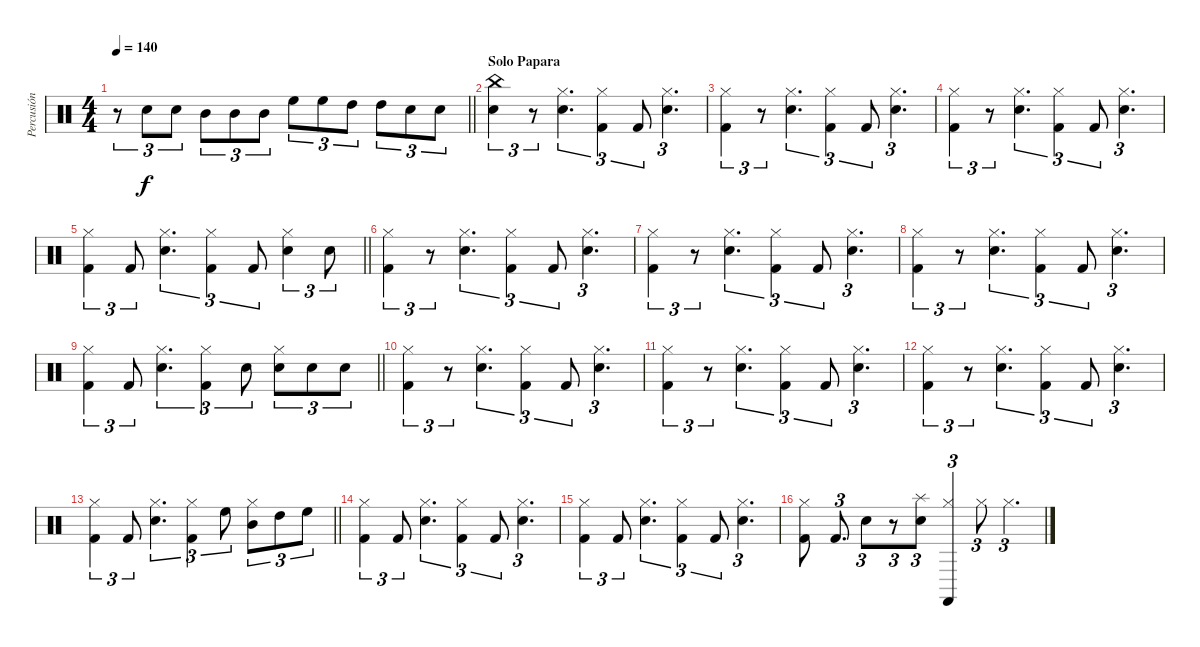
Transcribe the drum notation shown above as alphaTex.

\track ("Percusión" "Percusión") {instrument percussion}
\staff {score}
\articulation defaults
\ts (4 4)
\tempo 140
\clef neutral
\barLineRight lightlight
\ks c
r.8{tu (3 2) dy f} "Snare (hit) 2".8{tu (3 2)} "Snare (hit) 2".8{tu (3 2)} "Mid Tom (hit)".8{tu (3 2)} "Mid Tom (hit)".8{tu (3 2)} "Mid Tom (hit)".8{tu (3 2)} "High Floor Tom (hit)".8{tu (3 2)} "High Floor Tom (hit)".8{tu (3 2)} "High Tom (hit)".8{tu (3 2)} "High Tom (hit)".8{tu (3 2)} "Snare (hit) 2".8{tu (3 2)} "Snare (hit) 2".8{tu (3 2)} |
\section ("" "Solo Papara")
("China (hit)" "Snare (hit) 2").4{tu (3 2)} r.8{tu (3 2)} ("Hi-Hat (closed)" "Snare (hit) 2").4{d tu (3 2)} ("Hi-Hat (closed)" "Kick (hit) 2").4{tu (3 2)} "Kick (hit) 2".8{tu (3 2)} ("Hi-Hat (closed)" "Snare (hit) 2").4{d tu (3 2)} |
("Hi-Hat (closed)" "Kick (hit) 2").4{tu (3 2)} r.8{tu (3 2)} ("Hi-Hat (closed)" "Snare (hit) 2").4{d tu (3 2)} ("Hi-Hat (closed)" "Kick (hit) 2").4{tu (3 2)} "Kick (hit) 2".8{tu (3 2)} ("Hi-Hat (closed)" "Snare (hit) 2").4{d tu (3 2)} |
("Hi-Hat (closed)" "Kick (hit) 2").4{tu (3 2)} r.8{tu (3 2)} ("Hi-Hat (closed)" "Snare (hit) 2").4{d tu (3 2)} ("Hi-Hat (closed)" "Kick (hit) 2").4{tu (3 2)} "Kick (hit) 2".8{tu (3 2)} ("Hi-Hat (closed)" "Snare (hit) 2").4{d tu (3 2)} |
\barLineRight lightlight
("Hi-Hat (closed)" "Kick (hit) 2").4{tu (3 2)} "Kick (hit) 2".8{tu (3 2)} ("Hi-Hat (closed)" "Snare (hit) 2").4{d tu (3 2)} ("Hi-Hat (closed)" "Kick (hit) 2").4{tu (3 2)} "Kick (hit) 2".8{tu (3 2)} ("Hi-Hat (closed)" "Snare (hit) 2").4{tu (3 2)} "Snare (hit) 2".8{tu (3 2)} |
("Hi-Hat (closed)" "Kick (hit) 2").4{tu (3 2)} r.8{tu (3 2)} ("Hi-Hat (closed)" "Snare (hit) 2").4{d tu (3 2)} ("Hi-Hat (closed)" "Kick (hit) 2").4{tu (3 2)} "Kick (hit) 2".8{tu (3 2)} ("Hi-Hat (closed)" "Snare (hit) 2").4{d tu (3 2)} |
("Hi-Hat (closed)" "Kick (hit) 2").4{tu (3 2)} r.8{tu (3 2)} ("Hi-Hat (closed)" "Snare (hit) 2").4{d tu (3 2)} ("Hi-Hat (closed)" "Kick (hit) 2").4{tu (3 2)} "Kick (hit) 2".8{tu (3 2)} ("Hi-Hat (closed)" "Snare (hit) 2").4{d tu (3 2)} |
("Hi-Hat (closed)" "Kick (hit) 2").4{tu (3 2)} r.8{tu (3 2)} ("Hi-Hat (closed)" "Snare (hit) 2").4{d tu (3 2)} ("Hi-Hat (closed)" "Kick (hit) 2").4{tu (3 2)} "Kick (hit) 2".8{tu (3 2)} ("Hi-Hat (closed)" "Snare (hit) 2").4{d tu (3 2)} |
\barLineRight lightlight
("Hi-Hat (closed)" "Kick (hit) 2").4{tu (3 2)} "Kick (hit) 2".8{tu (3 2)} ("Hi-Hat (closed)" "Snare (hit) 2").4{d tu (3 2)} ("Hi-Hat (closed)" "Kick (hit) 2").4{tu (3 2)} "Snare (hit) 2".8{tu (3 2)} ("Hi-Hat (closed)" "Snare (hit) 2").8{tu (3 2)} "Snare (hit) 2".8{tu (3 2)} "Snare (hit) 2".8{tu (3 2)} |
("Hi-Hat (closed)" "Kick (hit) 2").4{tu (3 2)} r.8{tu (3 2)} ("Hi-Hat (closed)" "Snare (hit) 2").4{d tu (3 2)} ("Hi-Hat (closed)" "Kick (hit) 2").4{tu (3 2)} "Kick (hit) 2".8{tu (3 2)} ("Hi-Hat (closed)" "Snare (hit) 2").4{d tu (3 2)} |
("Hi-Hat (closed)" "Kick (hit) 2").4{tu (3 2)} r.8{tu (3 2)} ("Hi-Hat (closed)" "Snare (hit) 2").4{d tu (3 2)} ("Hi-Hat (closed)" "Kick (hit) 2").4{tu (3 2)} "Kick (hit) 2".8{tu (3 2)} ("Hi-Hat (closed)" "Snare (hit) 2").4{d tu (3 2)} |
("Hi-Hat (closed)" "Kick (hit) 2").4{tu (3 2)} r.8{tu (3 2)} ("Hi-Hat (closed)" "Snare (hit) 2").4{d tu (3 2)} ("Hi-Hat (closed)" "Kick (hit) 2").4{tu (3 2)} "Kick (hit) 2".8{tu (3 2)} ("Hi-Hat (closed)" "Snare (hit) 2").4{d tu (3 2)} |
\barLineRight lightlight
("Hi-Hat (closed)" "Kick (hit) 2").4{tu (3 2)} "Kick (hit) 2".8{tu (3 2)} ("Hi-Hat (closed)" "Snare (hit) 2").4{d tu (3 2)} ("Hi-Hat (closed)" "Kick (hit) 2").4{tu (3 2)} "High Floor Tom (hit)".8{tu (3 2)} ("Hi-Hat (closed)" "Mid Tom (hit)").8{tu (3 2)} "High Tom (hit)".8{tu (3 2)} "High Floor Tom (hit)".8{tu (3 2)} |
("Hi-Hat (closed)" "Kick (hit) 2").4{tu (3 2)} "Kick (hit) 2".8{tu (3 2)} ("Hi-Hat (closed)" "Snare (hit) 2").4{d tu (3 2)} ("Hi-Hat (closed)" "Kick (hit) 2").4{tu (3 2)} "Kick (hit) 2".8{tu (3 2)} ("Hi-Hat (closed)" "Snare (hit) 2").4{d tu (3 2)} |
("Hi-Hat (closed)" "Kick (hit) 2").4{tu (3 2)} "Kick (hit) 2".8{tu (3 2)} ("Hi-Hat (closed)" "Snare (hit) 2").4{d tu (3 2)} ("Hi-Hat (closed)" "Kick (hit) 2").4{tu (3 2)} "Kick (hit) 2".8{tu (3 2)} ("Hi-Hat (closed)" "Snare (hit) 2").4{d tu (3 2)} |
("Hi-Hat (closed)" "Kick (hit) 2").8 "Kick (hit) 2".8{d tu (3 2)} "Snare (hit) 2".8{tu (3 2)} r.8{tu (3 2)} ("Splash (hit)" "Snare (hit) 2").8{tu (3 2)} ("Hi-Hat (closed)" "Castanets (hit)").4{tu (3 2)} "Hi-Hat (closed)".8{tu (3 2)} "Hi-Hat (closed)".4{d tu (3 2)}
